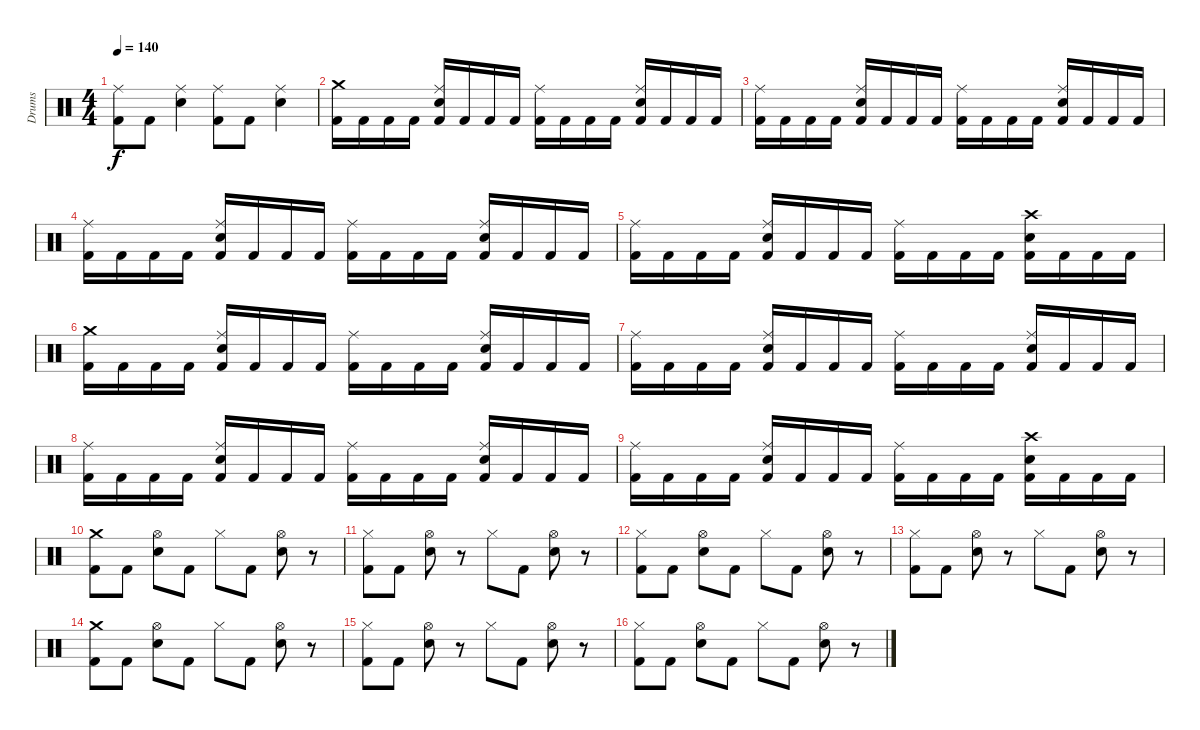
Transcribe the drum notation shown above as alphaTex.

\track ("Drums" "Drums") {instrument percussion}
\staff {score}
\articulation defaults
\ts (4 4)
\tempo 140
\clef neutral
\ks c
("Kick (hit) 2" "Ride (middle)").8{dy f} "Kick (hit) 2".8 ("Electric Snare (hit)" "Ride (middle)").4 ("Kick (hit) 2" "Ride (middle)").8 "Kick (hit) 2".8 ("Electric Snare (hit)" "Ride (middle)").4 |
("Kick (hit) 2" "Crash medium (hit)").16 "Kick (hit) 2".16 "Kick (hit) 2".16 "Kick (hit) 2".16 ("Kick (hit) 2" "Electric Snare (hit)" "Ride (middle)").16 "Kick (hit) 2".16 "Kick (hit) 2".16 "Kick (hit) 2".16 ("Kick (hit) 2" "Ride (middle)").16 "Kick (hit) 2".16 "Kick (hit) 2".16 "Kick (hit) 2".16 ("Kick (hit) 2" "Electric Snare (hit)" "Ride (middle)").16 "Kick (hit) 2".16 "Kick (hit) 2".16 "Kick (hit) 2".16 |
("Kick (hit) 2" "Ride (middle)").16 "Kick (hit) 2".16 "Kick (hit) 2".16 "Kick (hit) 2".16 ("Kick (hit) 2" "Electric Snare (hit)" "Ride (middle)").16 "Kick (hit) 2".16 "Kick (hit) 2".16 "Kick (hit) 2".16 ("Kick (hit) 2" "Ride (middle)").16 "Kick (hit) 2".16 "Kick (hit) 2".16 "Kick (hit) 2".16 ("Kick (hit) 2" "Electric Snare (hit)" "Ride (middle)").16 "Kick (hit) 2".16 "Kick (hit) 2".16 "Kick (hit) 2".16 |
("Kick (hit) 2" "Ride (middle)").16 "Kick (hit) 2".16 "Kick (hit) 2".16 "Kick (hit) 2".16 ("Kick (hit) 2" "Electric Snare (hit)" "Ride (middle)").16 "Kick (hit) 2".16 "Kick (hit) 2".16 "Kick (hit) 2".16 ("Kick (hit) 2" "Ride (middle)").16 "Kick (hit) 2".16 "Kick (hit) 2".16 "Kick (hit) 2".16 ("Kick (hit) 2" "Electric Snare (hit)" "Ride (middle)").16 "Kick (hit) 2".16 "Kick (hit) 2".16 "Kick (hit) 2".16 |
("Kick (hit) 2" "Ride (middle)").16 "Kick (hit) 2".16 "Kick (hit) 2".16 "Kick (hit) 2".16 ("Kick (hit) 2" "Electric Snare (hit)" "Ride (middle)").16 "Kick (hit) 2".16 "Kick (hit) 2".16 "Kick (hit) 2".16 ("Kick (hit) 2" "Ride (middle)").16 "Kick (hit) 2".16 "Kick (hit) 2".16 "Kick (hit) 2".16 ("Kick (hit) 2" "Electric Snare (hit)" "Crash high (hit)").16 "Kick (hit) 2".16 "Kick (hit) 2".16 "Kick (hit) 2".16 |
("Kick (hit) 2" "Crash medium (hit)").16 "Kick (hit) 2".16 "Kick (hit) 2".16 "Kick (hit) 2".16 ("Kick (hit) 2" "Electric Snare (hit)" "Ride (middle)").16 "Kick (hit) 2".16 "Kick (hit) 2".16 "Kick (hit) 2".16 ("Kick (hit) 2" "Ride (middle)").16 "Kick (hit) 2".16 "Kick (hit) 2".16 "Kick (hit) 2".16 ("Kick (hit) 2" "Electric Snare (hit)" "Ride (middle)").16 "Kick (hit) 2".16 "Kick (hit) 2".16 "Kick (hit) 2".16 |
("Kick (hit) 2" "Ride (middle)").16 "Kick (hit) 2".16 "Kick (hit) 2".16 "Kick (hit) 2".16 ("Kick (hit) 2" "Electric Snare (hit)" "Ride (middle)").16 "Kick (hit) 2".16 "Kick (hit) 2".16 "Kick (hit) 2".16 ("Kick (hit) 2" "Ride (middle)").16 "Kick (hit) 2".16 "Kick (hit) 2".16 "Kick (hit) 2".16 ("Kick (hit) 2" "Electric Snare (hit)" "Ride (middle)").16 "Kick (hit) 2".16 "Kick (hit) 2".16 "Kick (hit) 2".16 |
("Kick (hit) 2" "Ride (middle)").16 "Kick (hit) 2".16 "Kick (hit) 2".16 "Kick (hit) 2".16 ("Kick (hit) 2" "Electric Snare (hit)" "Ride (middle)").16 "Kick (hit) 2".16 "Kick (hit) 2".16 "Kick (hit) 2".16 ("Kick (hit) 2" "Ride (middle)").16 "Kick (hit) 2".16 "Kick (hit) 2".16 "Kick (hit) 2".16 ("Kick (hit) 2" "Electric Snare (hit)" "Ride (middle)").16 "Kick (hit) 2".16 "Kick (hit) 2".16 "Kick (hit) 2".16 |
("Kick (hit) 2" "Ride (middle)").16 "Kick (hit) 2".16 "Kick (hit) 2".16 "Kick (hit) 2".16 ("Kick (hit) 2" "Electric Snare (hit)" "Ride (middle)").16 "Kick (hit) 2".16 "Kick (hit) 2".16 "Kick (hit) 2".16 ("Kick (hit) 2" "Ride (middle)").16 "Kick (hit) 2".16 "Kick (hit) 2".16 "Kick (hit) 2".16 ("Kick (hit) 2" "Electric Snare (hit)" "Crash high (hit)").16 "Kick (hit) 2".16 "Kick (hit) 2".16 "Kick (hit) 2".16 |
("Kick (hit) 2" "Crash medium (hit)").8 "Kick (hit) 2".8 ("Electric Snare (hit)" "Hi-Hat (open)").8 "Kick (hit) 2".8 "Hi-Hat (closed)".8 "Kick (hit) 2".8 ("Electric Snare (hit)" "Hi-Hat (open)").8 r.8 |
("Kick (hit) 2" "Hi-Hat (closed)").8 "Kick (hit) 2".8 ("Electric Snare (hit)" "Hi-Hat (open)").8 r.8 "Hi-Hat (closed)".8 "Kick (hit) 2".8 ("Electric Snare (hit)" "Hi-Hat (open)").8 r.8 |
("Kick (hit) 2" "Hi-Hat (closed)").8 "Kick (hit) 2".8 ("Electric Snare (hit)" "Hi-Hat (open)").8 "Kick (hit) 2".8 "Hi-Hat (closed)".8 "Kick (hit) 2".8 ("Electric Snare (hit)" "Hi-Hat (open)").8 r.8 |
("Kick (hit) 2" "Hi-Hat (closed)").8 "Kick (hit) 2".8 ("Electric Snare (hit)" "Hi-Hat (open)").8 r.8 "Hi-Hat (closed)".8 "Kick (hit) 2".8 ("Electric Snare (hit)" "Hi-Hat (open)").8 r.8 |
("Kick (hit) 2" "Crash medium (hit)").8 "Kick (hit) 2".8 ("Electric Snare (hit)" "Hi-Hat (open)").8 "Kick (hit) 2".8 "Hi-Hat (closed)".8 "Kick (hit) 2".8 ("Electric Snare (hit)" "Hi-Hat (open)").8 r.8 |
("Kick (hit) 2" "Hi-Hat (closed)").8 "Kick (hit) 2".8 ("Electric Snare (hit)" "Hi-Hat (open)").8 r.8 "Hi-Hat (closed)".8 "Kick (hit) 2".8 ("Electric Snare (hit)" "Hi-Hat (open)").8 r.8 |
("Kick (hit) 2" "Hi-Hat (closed)").8 "Kick (hit) 2".8 ("Electric Snare (hit)" "Hi-Hat (open)").8 "Kick (hit) 2".8 "Hi-Hat (closed)".8 "Kick (hit) 2".8 ("Electric Snare (hit)" "Hi-Hat (open)").8 r.8
